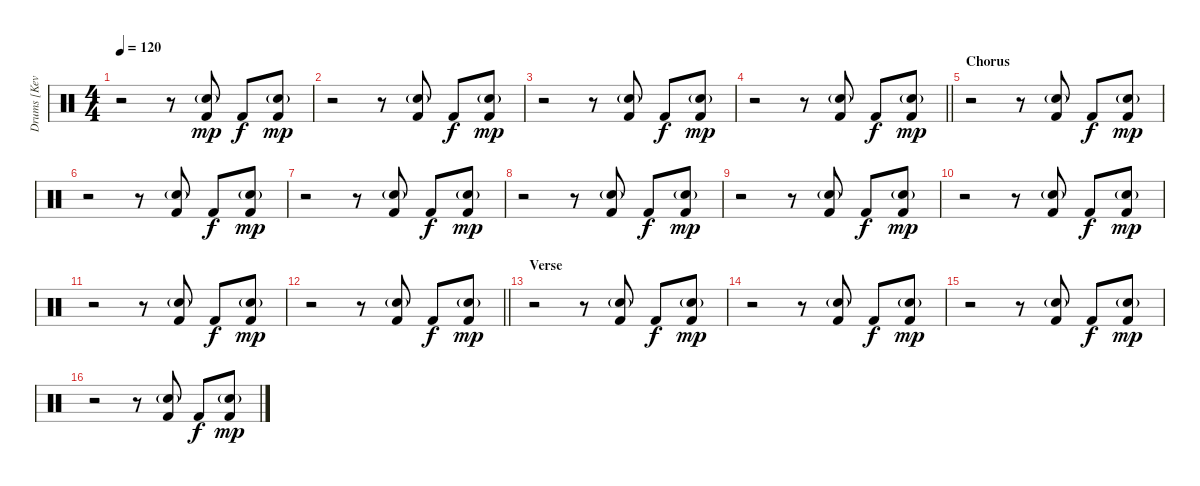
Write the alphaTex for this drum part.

\track ("Drums [Kevin Haskins]" "Drums [Kev") {instrument percussion}
\staff {score}
\articulation defaults
\ts (4 4)
\tempo 120
\clef neutral
\ks c
r.2{dy mp} r.8 ("Snare (hit) 2"{g} "Kick (hit) 2").8 "Kick (hit) 2".8{dy f} ("Snare (hit) 2"{g} "Kick (hit) 2").8{dy mp} |
r.2 r.8 ("Snare (hit) 2"{g} "Kick (hit) 2").8 "Kick (hit) 2".8{dy f} ("Snare (hit) 2"{g} "Kick (hit) 2").8{dy mp} |
r.2 r.8 ("Snare (hit) 2"{g} "Kick (hit) 2").8 "Kick (hit) 2".8{dy f} ("Snare (hit) 2"{g} "Kick (hit) 2").8{dy mp} |
\barLineRight lightlight
r.2 r.8 ("Snare (hit) 2"{g} "Kick (hit) 2").8 "Kick (hit) 2".8{dy f} ("Snare (hit) 2"{g} "Kick (hit) 2").8{dy mp} |
\section ("" "Chorus")
r.2 r.8 ("Snare (hit) 2"{g} "Kick (hit) 2").8 "Kick (hit) 2".8{dy f} ("Snare (hit) 2"{g} "Kick (hit) 2").8{dy mp} |
r.2 r.8 ("Snare (hit) 2"{g} "Kick (hit) 2").8 "Kick (hit) 2".8{dy f} ("Snare (hit) 2"{g} "Kick (hit) 2").8{dy mp} |
r.2 r.8 ("Snare (hit) 2"{g} "Kick (hit) 2").8 "Kick (hit) 2".8{dy f} ("Snare (hit) 2"{g} "Kick (hit) 2").8{dy mp} |
r.2 r.8 ("Snare (hit) 2"{g} "Kick (hit) 2").8 "Kick (hit) 2".8{dy f} ("Snare (hit) 2"{g} "Kick (hit) 2").8{dy mp} |
r.2 r.8 ("Snare (hit) 2"{g} "Kick (hit) 2").8 "Kick (hit) 2".8{dy f} ("Snare (hit) 2"{g} "Kick (hit) 2").8{dy mp} |
r.2 r.8 ("Snare (hit) 2"{g} "Kick (hit) 2").8 "Kick (hit) 2".8{dy f} ("Snare (hit) 2"{g} "Kick (hit) 2").8{dy mp} |
r.2 r.8 ("Snare (hit) 2"{g} "Kick (hit) 2").8 "Kick (hit) 2".8{dy f} ("Snare (hit) 2"{g} "Kick (hit) 2").8{dy mp} |
\barLineRight lightlight
r.2 r.8 ("Snare (hit) 2"{g} "Kick (hit) 2").8 "Kick (hit) 2".8{dy f} ("Snare (hit) 2"{g} "Kick (hit) 2").8{dy mp} |
\section ("" "Verse")
r.2 r.8 ("Snare (hit) 2"{g} "Kick (hit) 2").8 "Kick (hit) 2".8{dy f} ("Snare (hit) 2"{g} "Kick (hit) 2").8{dy mp} |
r.2 r.8 ("Snare (hit) 2"{g} "Kick (hit) 2").8 "Kick (hit) 2".8{dy f} ("Snare (hit) 2"{g} "Kick (hit) 2").8{dy mp} |
r.2 r.8 ("Snare (hit) 2"{g} "Kick (hit) 2").8 "Kick (hit) 2".8{dy f} ("Snare (hit) 2"{g} "Kick (hit) 2").8{dy mp} |
r.2 r.8 ("Snare (hit) 2"{g} "Kick (hit) 2").8 "Kick (hit) 2".8{dy f} ("Snare (hit) 2"{g} "Kick (hit) 2").8{dy mp}
